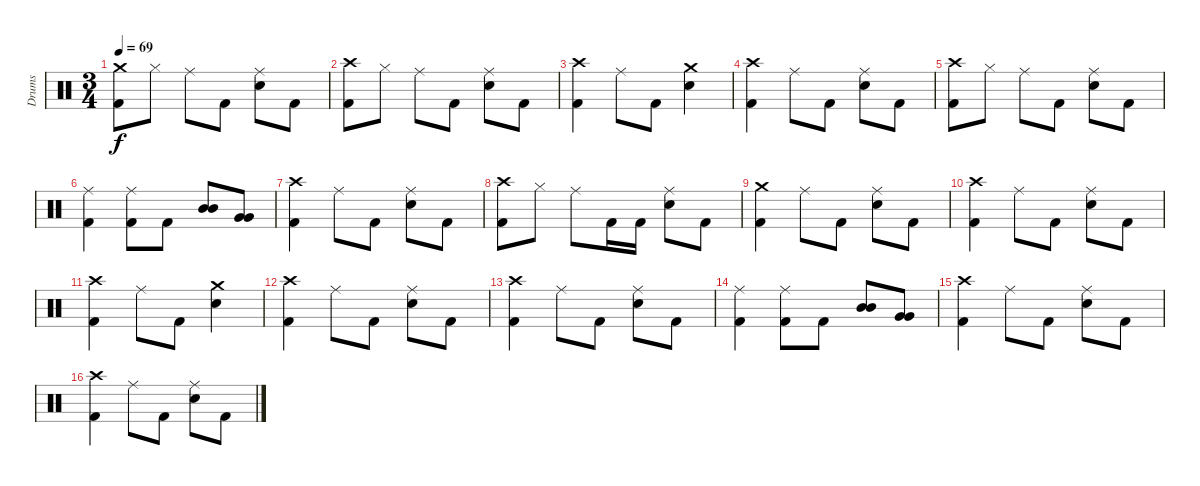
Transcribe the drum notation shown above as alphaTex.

\track ("Drums" "Drums") {instrument percussion}
\staff {score}
\articulation defaults
\ts (3 4)
\tempo 69
\clef neutral
\ks c
("Crash medium (hit)" "Kick (hit) 2").8{dy f} "Hi-Hat (closed)".8 "Ride (middle)".8 "Kick (hit) 2".8 ("Ride (middle)" "Electric Snare (hit)").8 "Kick (hit) 2".8 |
("Crash high (hit)" "Kick (hit) 2").8 "Hi-Hat (closed)".8 "Ride (middle)".8 "Kick (hit) 2".8 ("Ride (middle)" "Electric Snare (hit)").8 "Kick (hit) 2".8 |
("Crash high (hit)" "Kick (hit) 2").4 "Ride (middle)".8 "Kick (hit) 2".8 ("Crash medium (hit)" "Electric Snare (hit)").4 |
("Crash high (hit)" "Kick (hit) 2").4 "Ride (middle)".8 "Kick (hit) 2".8 ("Ride (middle)" "Electric Snare (hit)").8 "Kick (hit) 2".8 |
("Crash high (hit)" "Kick (hit) 2").8 "Hi-Hat (closed)".8 "Ride (middle)".8 "Kick (hit) 2".8 ("Ride (middle)" "Electric Snare (hit)").8 "Kick (hit) 2".8 |
("Ride (middle)" "Kick (hit) 2").4 ("Ride (middle)" "Kick (hit) 2").8 "Kick (hit) 2".8 ("Mid Tom (hit)" "Mid Tom (hit)").8 ("Very Low Tom (hit)" "Very Low Tom (hit)").8 |
("Crash high (hit)" "Kick (hit) 2").4 "Ride (middle)".8 "Kick (hit) 2".8 ("Ride (middle)" "Electric Snare (hit)").8 "Kick (hit) 2".8 |
("Crash high (hit)" "Kick (hit) 2").8 "Hi-Hat (closed)".8 "Ride (middle)".8 "Kick (hit) 2".16 "Kick (hit) 2".16 ("Ride (middle)" "Electric Snare (hit)").8 "Kick (hit) 2".8 |
("Crash medium (hit)" "Kick (hit) 2").4 "Ride (middle)".8 "Kick (hit) 2".8 ("Ride (middle)" "Electric Snare (hit)").8 "Kick (hit) 2".8 |
("Crash high (hit)" "Kick (hit) 2").4 "Ride (middle)".8 "Kick (hit) 2".8 ("Ride (middle)" "Electric Snare (hit)").8 "Kick (hit) 2".8 |
("Crash high (hit)" "Kick (hit) 2").4 "Ride (middle)".8 "Kick (hit) 2".8 ("Crash medium (hit)" "Electric Snare (hit)").4 |
("Crash high (hit)" "Kick (hit) 2").4 "Ride (middle)".8 "Kick (hit) 2".8 ("Ride (middle)" "Electric Snare (hit)").8 "Kick (hit) 2".8 |
("Crash high (hit)" "Kick (hit) 2").4 "Ride (middle)".8 "Kick (hit) 2".8 ("Ride (middle)" "Electric Snare (hit)").8 "Kick (hit) 2".8 |
("Ride (middle)" "Kick (hit) 2").4 ("Ride (middle)" "Kick (hit) 2").8 "Kick (hit) 2".8 ("Mid Tom (hit)" "Mid Tom (hit)").8 ("Very Low Tom (hit)" "Very Low Tom (hit)").8 |
("Crash high (hit)" "Kick (hit) 2").4 "Ride (middle)".8 "Kick (hit) 2".8 ("Ride (middle)" "Electric Snare (hit)").8 "Kick (hit) 2".8 |
("Crash high (hit)" "Kick (hit) 2").4 "Ride (middle)".8 "Kick (hit) 2".8 ("Ride (middle)" "Electric Snare (hit)").8 "Kick (hit) 2".8
